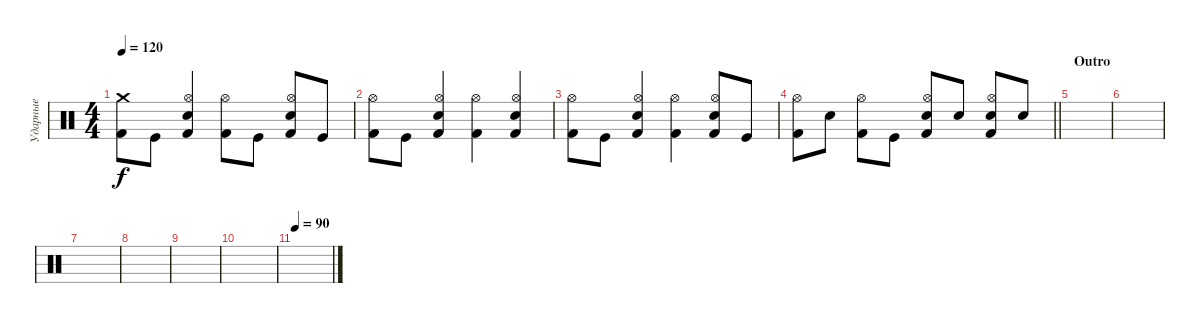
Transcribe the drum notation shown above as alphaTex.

\track ("Ударные" "Ударные") {instrument percussion}
\staff {score}
\articulation defaults
\ts (4 4)
\tempo 120
\clef neutral
\ks c
("Crash medium (hit)" "Kick (hit) 2").8{dy f} "Kick (hit)".8 ("Hi-Hat (open)" "Electric Snare (hit)" "Kick (hit) 2").4 ("Hi-Hat (open)" "Kick (hit) 2").8 "Kick (hit)".8 ("Hi-Hat (open)" "Electric Snare (hit)" "Kick (hit) 2").8 "Kick (hit)".8 |
("Hi-Hat (open)" "Kick (hit) 2").8 "Kick (hit)".8 ("Hi-Hat (open)" "Electric Snare (hit)" "Kick (hit) 2").4 ("Hi-Hat (open)" "Kick (hit) 2").4 ("Hi-Hat (open)" "Electric Snare (hit)" "Kick (hit) 2").4 |
("Hi-Hat (open)" "Kick (hit) 2").8 "Kick (hit)".8 ("Hi-Hat (open)" "Electric Snare (hit)" "Kick (hit) 2").4 ("Hi-Hat (open)" "Kick (hit) 2").4 ("Hi-Hat (open)" "Electric Snare (hit)" "Kick (hit) 2").8 "Kick (hit)".8 |
\barLineRight lightlight
("Hi-Hat (open)" "Kick (hit) 2").8 "Electric Snare (hit)".8 ("Hi-Hat (open)" "Kick (hit) 2").8 "Kick (hit)".8 ("Hi-Hat (open)" "Electric Snare (hit)" "Kick (hit) 2").8 "Electric Snare (hit)".8 ("Hi-Hat (open)" "Electric Snare (hit)" "Kick (hit) 2").8 "Electric Snare (hit)".8 |
\section ("" "Outro")
|
|
|
|
|
|
\tempo 90
